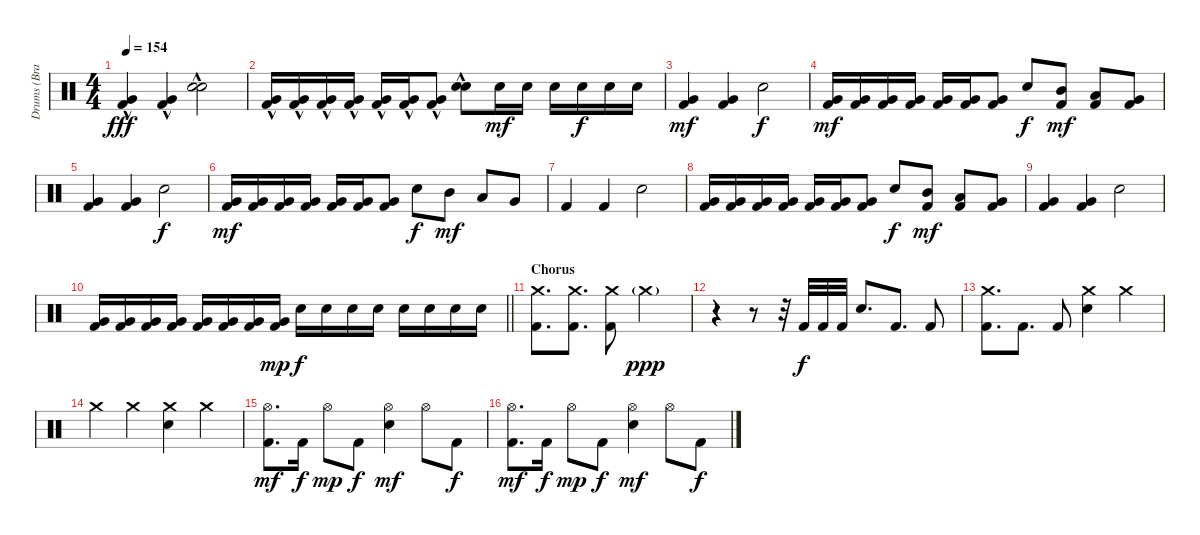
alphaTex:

\track ("Drums (Brandon Saller)" "Drums (Bra") {instrument percussion}
\staff {score}
\articulation defaults
\ts (4 4)
\tempo 154
\clef neutral
\ks c
("Very Low Tom (hit)" "Kick (hit) 2"{hac}).4{dy fff} ("Very Low Tom (hit)" "Kick (hit) 2"{hac}).4 ("Hand Clap (hit)" "Electric Snare (hit)"{hac}).2 |
("Very Low Tom (hit)" "Kick (hit) 2"{hac}).16 ("Very Low Tom (hit)" "Kick (hit) 2"{hac}).16 ("Very Low Tom (hit)" "Kick (hit) 2"{hac}).16 ("Very Low Tom (hit)" "Kick (hit) 2"{hac}).16 ("Very Low Tom (hit)" "Kick (hit) 2"{hac}).16 ("Very Low Tom (hit)" "Kick (hit) 2"{hac}).16 ("Very Low Tom (hit)" "Kick (hit) 2"{hac}).8 ("Hand Clap (hit)" "Electric Snare (hit)"{hac}).8 "Electric Snare (hit)".16{dy mf} "Electric Snare (hit)".16 "Electric Snare (hit)".16 "Electric Snare (hit)".16{dy f} "Electric Snare (hit)".16 "Electric Snare (hit)".16 |
("Very Low Tom (hit)" "Kick (hit) 2").4{dy mf} ("Very Low Tom (hit)" "Kick (hit) 2").4 "Electric Snare (hit)".2{dy f} |
("Very Low Tom (hit)" "Kick (hit) 2").16{dy mf} ("Very Low Tom (hit)" "Kick (hit) 2").16 ("Very Low Tom (hit)" "Kick (hit) 2").16 ("Very Low Tom (hit)" "Kick (hit) 2").16 ("Very Low Tom (hit)" "Kick (hit) 2").16 ("Very Low Tom (hit)" "Kick (hit) 2").16 ("Very Low Tom (hit)" "Kick (hit) 2").8 "Electric Snare (hit)".8{dy f} ("Mid Tom (hit)" "Kick (hit) 2").8{dy mf} ("Low Tom (hit)" "Kick (hit) 2").8 ("Very Low Tom (hit)" "Kick (hit) 2").8 |
("Very Low Tom (hit)" "Kick (hit) 2").4 ("Very Low Tom (hit)" "Kick (hit) 2").4 "Electric Snare (hit)".2{dy f} |
("Very Low Tom (hit)" "Kick (hit) 2").16{dy mf} ("Very Low Tom (hit)" "Kick (hit) 2").16 ("Very Low Tom (hit)" "Kick (hit) 2").16 ("Very Low Tom (hit)" "Kick (hit) 2").16 ("Very Low Tom (hit)" "Kick (hit) 2").16 ("Very Low Tom (hit)" "Kick (hit) 2").16 ("Very Low Tom (hit)" "Kick (hit) 2").8 "Electric Snare (hit)".8{dy f} "Mid Tom (hit)".8{dy mf} "Low Tom (hit)".8 "Very Low Tom (hit)".8 |
"Kick (hit) 2".4 "Kick (hit) 2".4 "Electric Snare (hit)".2 |
("Very Low Tom (hit)" "Kick (hit) 2").16 ("Very Low Tom (hit)" "Kick (hit) 2").16 ("Very Low Tom (hit)" "Kick (hit) 2").16 ("Very Low Tom (hit)" "Kick (hit) 2").16 ("Very Low Tom (hit)" "Kick (hit) 2").16 ("Very Low Tom (hit)" "Kick (hit) 2").16 ("Very Low Tom (hit)" "Kick (hit) 2").8 "Electric Snare (hit)".8{dy f} ("Mid Tom (hit)" "Kick (hit) 2").8{dy mf} ("Low Tom (hit)" "Kick (hit) 2").8 ("Very Low Tom (hit)" "Kick (hit) 2").8 |
("Very Low Tom (hit)" "Kick (hit) 2").4 ("Very Low Tom (hit)" "Kick (hit) 2").4 "Electric Snare (hit)".2 |
\barLineRight lightlight
("Very Low Tom (hit)" "Kick (hit) 2").16 ("Very Low Tom (hit)" "Kick (hit) 2").16 ("Very Low Tom (hit)" "Kick (hit) 2").16 ("Very Low Tom (hit)" "Kick (hit) 2").16 ("Very Low Tom (hit)" "Kick (hit) 2").16 ("Very Low Tom (hit)" "Kick (hit) 2").16 ("Very Low Tom (hit)" "Kick (hit) 2").16 ("Very Low Tom (hit)" "Kick (hit) 2").16{dy mp} "Electric Snare (hit)".16{dy f} "Electric Snare (hit)".16 "Electric Snare (hit)".16 "Electric Snare (hit)".16 "Electric Snare (hit)".16 "Electric Snare (hit)".16 "Electric Snare (hit)".16 "Electric Snare (hit)".16 |
\section ("" "Chorus")
("Crash medium (hit)" "Kick (hit) 2").8{d} ("Crash medium (hit)" "Kick (hit) 2").8{d} ("Crash medium (hit)" "Kick (hit) 2").8 "Crash medium (hit)"{g}.2{dy ppp} |
r.4 r.8 r.32 "Kick (hit) 2".32{dy f} "Kick (hit) 2".32 "Kick (hit) 2".32 "Electric Snare (hit)".8{d} "Kick (hit) 2".8{d} "Kick (hit) 2".8 |
("Crash medium (hit)" "Kick (hit) 2").8{d} "Kick (hit) 2".8{d} "Kick (hit) 2".8 ("Crash medium (hit)" "Electric Snare (hit)").4 "Crash medium (hit)".4 |
"Crash medium (hit)".4 "Crash medium (hit)".4 ("Crash medium (hit)" "Electric Snare (hit)").4 "Crash medium (hit)".4 |
("Hi-Hat (open)" "Kick (hit) 2").8{d dy mf} "Kick (hit) 2".16{dy f} "Hi-Hat (open)".8{dy mp} "Kick (hit) 2".8{dy f} ("Hi-Hat (open)" "Electric Snare (hit)").4{dy mf} "Hi-Hat (open)".8 "Kick (hit) 2".8{dy f} |
("Hi-Hat (open)" "Kick (hit) 2").8{d dy mf} "Kick (hit) 2".16{dy f} "Hi-Hat (open)".8{dy mp} "Kick (hit) 2".8{dy f} ("Hi-Hat (open)" "Electric Snare (hit)").4{dy mf} "Hi-Hat (open)".8 "Kick (hit) 2".8{dy f}
